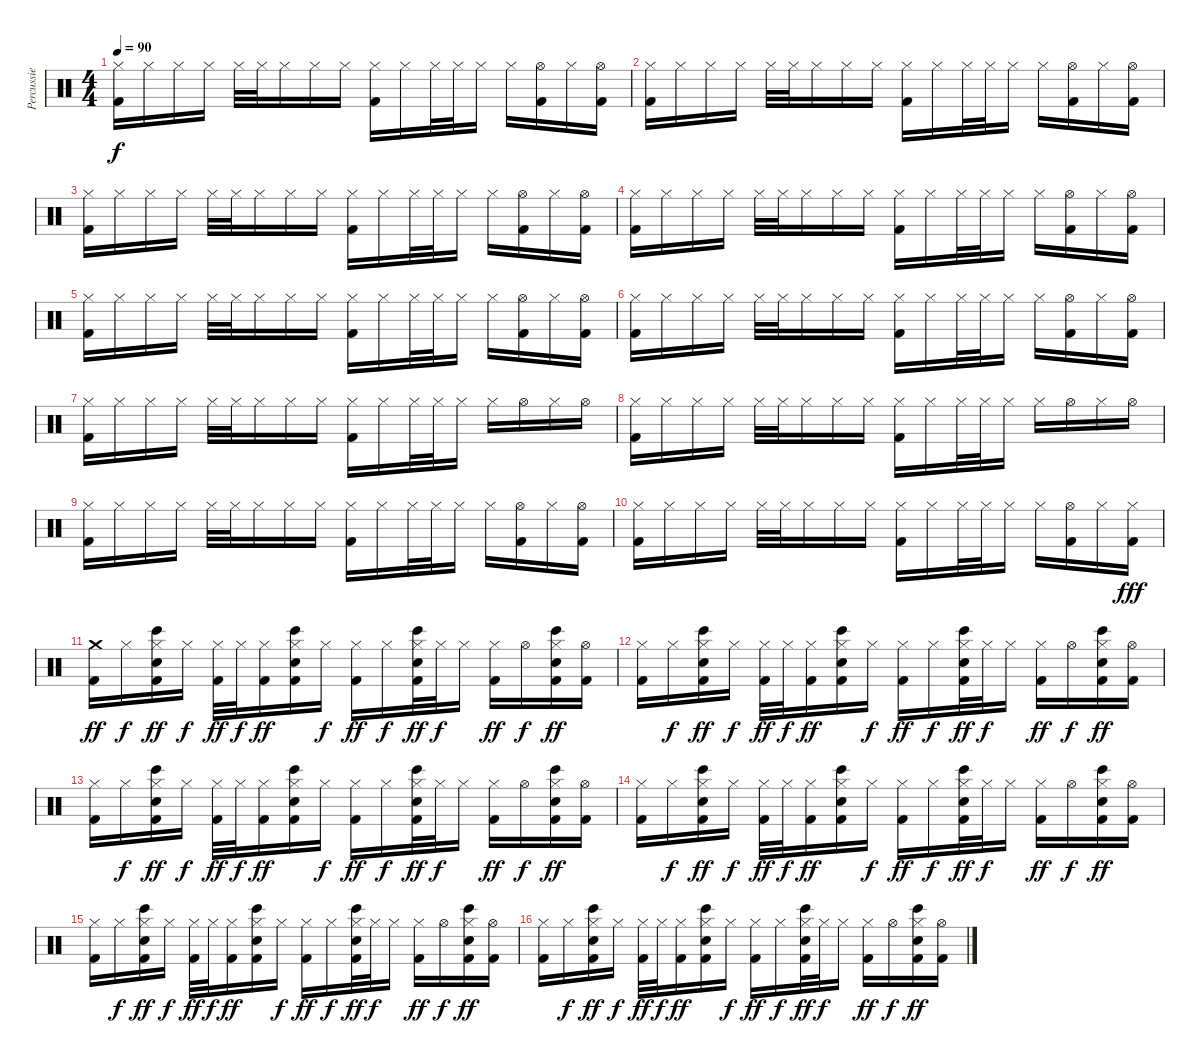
\track ("Percussie" "Percussie") {instrument percussion}
\staff {score}
\articulation defaults
\ts (4 4)
\tempo 90
\clef neutral
\ks c
("Hi-Hat (closed)" "Kick (hit) 2").16{dy f} "Hi-Hat (closed)".16 "Hi-Hat (closed)".16 "Hi-Hat (closed)".16 "Hi-Hat (closed)".32 "Hi-Hat (closed)".32 "Hi-Hat (closed)".16 "Hi-Hat (closed)".16 "Hi-Hat (closed)".16 ("Hi-Hat (closed)" "Kick (hit) 2").16 "Hi-Hat (closed)".16 "Hi-Hat (closed)".32 "Hi-Hat (closed)".32 "Hi-Hat (closed)".16 "Hi-Hat (closed)".16 ("Hi-Hat (open)" "Kick (hit) 2").16 "Hi-Hat (closed)".16 ("Hi-Hat (open)" "Kick (hit) 2").16 |
("Hi-Hat (closed)" "Kick (hit) 2").16 "Hi-Hat (closed)".16 "Hi-Hat (closed)".16 "Hi-Hat (closed)".16 "Hi-Hat (closed)".32 "Hi-Hat (closed)".32 "Hi-Hat (closed)".16 "Hi-Hat (closed)".16 "Hi-Hat (closed)".16 ("Hi-Hat (closed)" "Kick (hit) 2").16 "Hi-Hat (closed)".16 "Hi-Hat (closed)".32 "Hi-Hat (closed)".32 "Hi-Hat (closed)".16 "Hi-Hat (closed)".16 ("Hi-Hat (open)" "Kick (hit) 2").16 "Hi-Hat (closed)".16 ("Hi-Hat (open)" "Kick (hit) 2").16 |
("Hi-Hat (closed)" "Kick (hit) 2").16 "Hi-Hat (closed)".16 "Hi-Hat (closed)".16 "Hi-Hat (closed)".16 "Hi-Hat (closed)".32 "Hi-Hat (closed)".32 "Hi-Hat (closed)".16 "Hi-Hat (closed)".16 "Hi-Hat (closed)".16 ("Hi-Hat (closed)" "Kick (hit) 2").16 "Hi-Hat (closed)".16 "Hi-Hat (closed)".32 "Hi-Hat (closed)".32 "Hi-Hat (closed)".16 "Hi-Hat (closed)".16 ("Hi-Hat (open)" "Kick (hit) 2").16 "Hi-Hat (closed)".16 ("Hi-Hat (open)" "Kick (hit) 2").16 |
("Hi-Hat (closed)" "Kick (hit) 2").16 "Hi-Hat (closed)".16 "Hi-Hat (closed)".16 "Hi-Hat (closed)".16 "Hi-Hat (closed)".32 "Hi-Hat (closed)".32 "Hi-Hat (closed)".16 "Hi-Hat (closed)".16 "Hi-Hat (closed)".16 ("Hi-Hat (closed)" "Kick (hit) 2").16 "Hi-Hat (closed)".16 "Hi-Hat (closed)".32 "Hi-Hat (closed)".32 "Hi-Hat (closed)".16 "Hi-Hat (closed)".16 ("Hi-Hat (open)" "Kick (hit) 2").16 "Hi-Hat (closed)".16 ("Hi-Hat (open)" "Kick (hit) 2").16 |
("Hi-Hat (closed)" "Kick (hit) 2").16 "Hi-Hat (closed)".16 "Hi-Hat (closed)".16 "Hi-Hat (closed)".16 "Hi-Hat (closed)".32 "Hi-Hat (closed)".32 "Hi-Hat (closed)".16 "Hi-Hat (closed)".16 "Hi-Hat (closed)".16 ("Hi-Hat (closed)" "Kick (hit) 2").16 "Hi-Hat (closed)".16 "Hi-Hat (closed)".32 "Hi-Hat (closed)".32 "Hi-Hat (closed)".16 "Hi-Hat (closed)".16 ("Hi-Hat (open)" "Kick (hit) 2").16 "Hi-Hat (closed)".16 ("Hi-Hat (open)" "Kick (hit) 2").16 |
("Hi-Hat (closed)" "Kick (hit) 2").16 "Hi-Hat (closed)".16 "Hi-Hat (closed)".16 "Hi-Hat (closed)".16 "Hi-Hat (closed)".32 "Hi-Hat (closed)".32 "Hi-Hat (closed)".16 "Hi-Hat (closed)".16 "Hi-Hat (closed)".16 ("Hi-Hat (closed)" "Kick (hit) 2").16 "Hi-Hat (closed)".16 "Hi-Hat (closed)".32 "Hi-Hat (closed)".32 "Hi-Hat (closed)".16 "Hi-Hat (closed)".16 ("Hi-Hat (open)" "Kick (hit) 2").16 "Hi-Hat (closed)".16 ("Hi-Hat (open)" "Kick (hit) 2").16 |
("Hi-Hat (closed)" "Kick (hit) 2").16 "Hi-Hat (closed)".16 "Hi-Hat (closed)".16 "Hi-Hat (closed)".16 "Hi-Hat (closed)".32 "Hi-Hat (closed)".32 "Hi-Hat (closed)".16 "Hi-Hat (closed)".16 "Hi-Hat (closed)".16 ("Hi-Hat (closed)" "Kick (hit) 2").16 "Hi-Hat (closed)".16 "Hi-Hat (closed)".32 "Hi-Hat (closed)".32 "Hi-Hat (closed)".16 "Hi-Hat (closed)".16 "Hi-Hat (open)".16 "Hi-Hat (closed)".16 "Hi-Hat (open)".16 |
("Hi-Hat (closed)" "Kick (hit) 2").16 "Hi-Hat (closed)".16 "Hi-Hat (closed)".16 "Hi-Hat (closed)".16 "Hi-Hat (closed)".32 "Hi-Hat (closed)".32 "Hi-Hat (closed)".16 "Hi-Hat (closed)".16 "Hi-Hat (closed)".16 ("Hi-Hat (closed)" "Kick (hit) 2").16 "Hi-Hat (closed)".16 "Hi-Hat (closed)".32 "Hi-Hat (closed)".32 "Hi-Hat (closed)".16 "Hi-Hat (closed)".16 "Hi-Hat (open)".16 "Hi-Hat (closed)".16 "Hi-Hat (open)".16 |
("Hi-Hat (closed)" "Kick (hit) 2").16 "Hi-Hat (closed)".16 "Hi-Hat (closed)".16 "Hi-Hat (closed)".16 "Hi-Hat (closed)".32 "Hi-Hat (closed)".32 "Hi-Hat (closed)".16 "Hi-Hat (closed)".16 "Hi-Hat (closed)".16 ("Hi-Hat (closed)" "Kick (hit) 2").16 "Hi-Hat (closed)".16 "Hi-Hat (closed)".32 "Hi-Hat (closed)".32 "Hi-Hat (closed)".16 "Hi-Hat (closed)".16 ("Hi-Hat (open)" "Kick (hit) 2").16 "Hi-Hat (closed)".16 ("Hi-Hat (open)" "Kick (hit) 2").16 |
("Hi-Hat (closed)" "Kick (hit) 2").16 "Hi-Hat (closed)".16 "Hi-Hat (closed)".16 "Hi-Hat (closed)".16 "Hi-Hat (closed)".32 "Hi-Hat (closed)".32 "Hi-Hat (closed)".16 "Hi-Hat (closed)".16 "Hi-Hat (closed)".16 ("Hi-Hat (closed)" "Kick (hit) 2").16 "Hi-Hat (closed)".16 "Hi-Hat (closed)".32 "Hi-Hat (closed)".32 "Hi-Hat (closed)".16 "Hi-Hat (closed)".16 ("Hi-Hat (open)" "Kick (hit) 2").16 "Hi-Hat (closed)".16 ("Hi-Hat (closed)" "Kick (hit) 2").16{dy fff} |
("Crash medium (hit)" "Kick (hit) 2").16{dy ff} "Hi-Hat (closed)".16{dy f} ("Hi-Hat (closed)" "Electric Snare (hit)" "Bongo High (hit)" "Kick (hit) 2").16{dy ff} "Hi-Hat (closed)".16{dy f} ("Hi-Hat (closed)" "Kick (hit) 2").32{dy ff} "Hi-Hat (closed)".32{dy f} ("Hi-Hat (closed)" "Kick (hit) 2").16{dy ff} ("Hi-Hat (closed)" "Electric Snare (hit)" "Bongo High (hit)" "Kick (hit) 2").16 "Hi-Hat (closed)".16{dy f} ("Hi-Hat (closed)" "Kick (hit) 2").16{dy ff} "Hi-Hat (closed)".16{dy f} ("Hi-Hat (closed)" "Electric Snare (hit)" "Bongo High (hit)" "Kick (hit) 2").32{dy ff} "Hi-Hat (closed)".32{dy f} "Hi-Hat (closed)".16 ("Hi-Hat (closed)" "Kick (hit) 2").16{dy ff} "Hi-Hat (open)".16{dy f} ("Hi-Hat (closed)" "Electric Snare (hit)" "Bongo High (hit)" "Kick (hit) 2").16{dy ff} ("Hi-Hat (open)" "Kick (hit) 2").16 |
("Hi-Hat (closed)" "Kick (hit) 2").16 "Hi-Hat (closed)".16{dy f} ("Hi-Hat (closed)" "Electric Snare (hit)" "Bongo High (hit)" "Kick (hit) 2").16{dy ff} "Hi-Hat (closed)".16{dy f} ("Hi-Hat (closed)" "Kick (hit) 2").32{dy ff} "Hi-Hat (closed)".32{dy f} ("Hi-Hat (closed)" "Kick (hit) 2").16{dy ff} ("Hi-Hat (closed)" "Electric Snare (hit)" "Bongo High (hit)" "Kick (hit) 2").16 "Hi-Hat (closed)".16{dy f} ("Hi-Hat (closed)" "Kick (hit) 2").16{dy ff} "Hi-Hat (closed)".16{dy f} ("Hi-Hat (closed)" "Electric Snare (hit)" "Bongo High (hit)" "Kick (hit) 2").32{dy ff} "Hi-Hat (closed)".32{dy f} "Hi-Hat (closed)".16 ("Hi-Hat (closed)" "Kick (hit) 2").16{dy ff} "Hi-Hat (open)".16{dy f} ("Hi-Hat (closed)" "Electric Snare (hit)" "Bongo High (hit)" "Kick (hit) 2").16{dy ff} ("Hi-Hat (open)" "Kick (hit) 2").16 |
("Hi-Hat (closed)" "Kick (hit) 2").16 "Hi-Hat (closed)".16{dy f} ("Hi-Hat (closed)" "Electric Snare (hit)" "Bongo High (hit)" "Kick (hit) 2").16{dy ff} "Hi-Hat (closed)".16{dy f} ("Hi-Hat (closed)" "Kick (hit) 2").32{dy ff} "Hi-Hat (closed)".32{dy f} ("Hi-Hat (closed)" "Kick (hit) 2").16{dy ff} ("Hi-Hat (closed)" "Electric Snare (hit)" "Bongo High (hit)" "Kick (hit) 2").16 "Hi-Hat (closed)".16{dy f} ("Hi-Hat (closed)" "Kick (hit) 2").16{dy ff} "Hi-Hat (closed)".16{dy f} ("Hi-Hat (closed)" "Electric Snare (hit)" "Bongo High (hit)" "Kick (hit) 2").32{dy ff} "Hi-Hat (closed)".32{dy f} "Hi-Hat (closed)".16 ("Hi-Hat (closed)" "Kick (hit) 2").16{dy ff} "Hi-Hat (open)".16{dy f} ("Hi-Hat (closed)" "Electric Snare (hit)" "Bongo High (hit)" "Kick (hit) 2").16{dy ff} ("Hi-Hat (open)" "Kick (hit) 2").16 |
("Hi-Hat (closed)" "Kick (hit) 2").16 "Hi-Hat (closed)".16{dy f} ("Hi-Hat (closed)" "Electric Snare (hit)" "Bongo High (hit)" "Kick (hit) 2").16{dy ff} "Hi-Hat (closed)".16{dy f} ("Hi-Hat (closed)" "Kick (hit) 2").32{dy ff} "Hi-Hat (closed)".32{dy f} ("Hi-Hat (closed)" "Kick (hit) 2").16{dy ff} ("Hi-Hat (closed)" "Electric Snare (hit)" "Bongo High (hit)" "Kick (hit) 2").16 "Hi-Hat (closed)".16{dy f} ("Hi-Hat (closed)" "Kick (hit) 2").16{dy ff} "Hi-Hat (closed)".16{dy f} ("Hi-Hat (closed)" "Electric Snare (hit)" "Bongo High (hit)" "Kick (hit) 2").32{dy ff} "Hi-Hat (closed)".32{dy f} "Hi-Hat (closed)".16 ("Hi-Hat (closed)" "Kick (hit) 2").16{dy ff} "Hi-Hat (open)".16{dy f} ("Hi-Hat (closed)" "Electric Snare (hit)" "Bongo High (hit)" "Kick (hit) 2").16{dy ff} ("Hi-Hat (open)" "Kick (hit) 2").16 |
("Hi-Hat (closed)" "Kick (hit) 2").16 "Hi-Hat (closed)".16{dy f} ("Hi-Hat (closed)" "Electric Snare (hit)" "Bongo High (hit)" "Kick (hit) 2").16{dy ff} "Hi-Hat (closed)".16{dy f} ("Hi-Hat (closed)" "Kick (hit) 2").32{dy ff} "Hi-Hat (closed)".32{dy f} ("Hi-Hat (closed)" "Kick (hit) 2").16{dy ff} ("Hi-Hat (closed)" "Electric Snare (hit)" "Bongo High (hit)" "Kick (hit) 2").16 "Hi-Hat (closed)".16{dy f} ("Hi-Hat (closed)" "Kick (hit) 2").16{dy ff} "Hi-Hat (closed)".16{dy f} ("Hi-Hat (closed)" "Electric Snare (hit)" "Bongo High (hit)" "Kick (hit) 2").32{dy ff} "Hi-Hat (closed)".32{dy f} "Hi-Hat (closed)".16 ("Hi-Hat (closed)" "Kick (hit) 2").16{dy ff} "Hi-Hat (open)".16{dy f} ("Hi-Hat (closed)" "Electric Snare (hit)" "Bongo High (hit)" "Kick (hit) 2").16{dy ff} ("Hi-Hat (open)" "Kick (hit) 2").16 |
("Hi-Hat (closed)" "Kick (hit) 2").16 "Hi-Hat (closed)".16{dy f} ("Hi-Hat (closed)" "Electric Snare (hit)" "Bongo High (hit)" "Kick (hit) 2").16{dy ff} "Hi-Hat (closed)".16{dy f} ("Hi-Hat (closed)" "Kick (hit) 2").32{dy ff} "Hi-Hat (closed)".32{dy f} ("Hi-Hat (closed)" "Kick (hit) 2").16{dy ff} ("Hi-Hat (closed)" "Electric Snare (hit)" "Bongo High (hit)" "Kick (hit) 2").16 "Hi-Hat (closed)".16{dy f} ("Hi-Hat (closed)" "Kick (hit) 2").16{dy ff} "Hi-Hat (closed)".16{dy f} ("Hi-Hat (closed)" "Electric Snare (hit)" "Bongo High (hit)" "Kick (hit) 2").32{dy ff} "Hi-Hat (closed)".32{dy f} "Hi-Hat (closed)".16 ("Hi-Hat (closed)" "Kick (hit) 2").16{dy ff} "Hi-Hat (open)".16{dy f} ("Hi-Hat (closed)" "Electric Snare (hit)" "Bongo High (hit)" "Kick (hit) 2").16{dy ff} ("Hi-Hat (open)" "Kick (hit) 2").16
